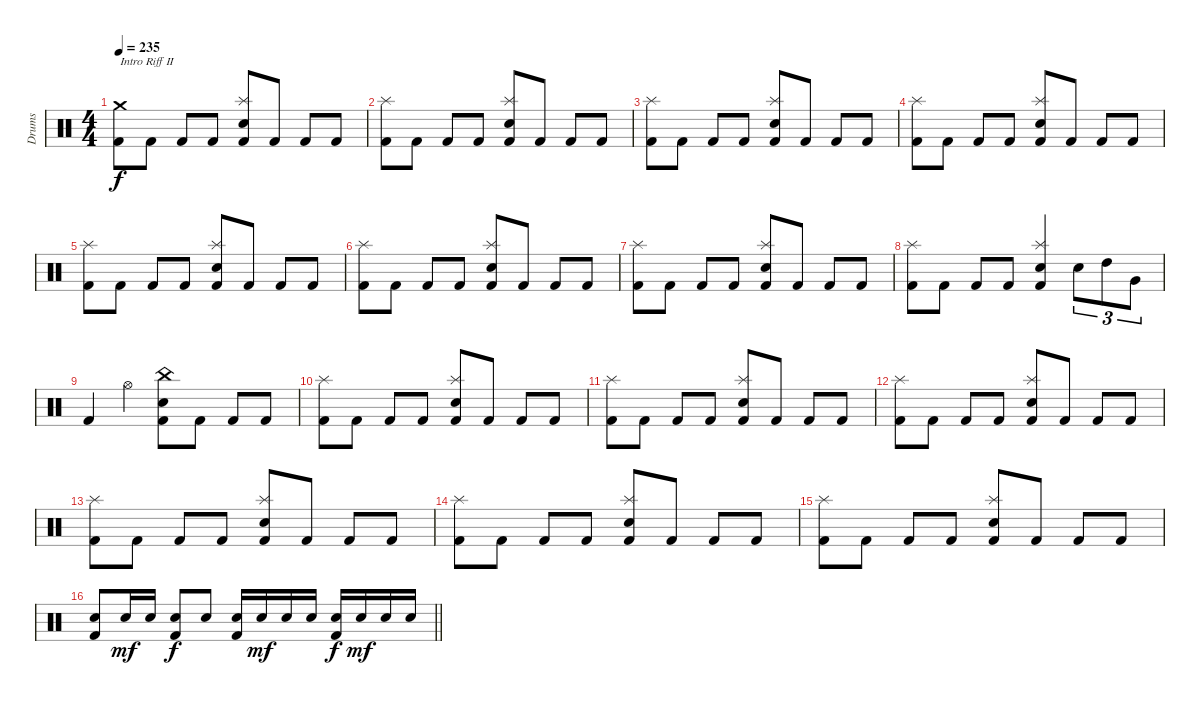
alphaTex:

\track ("Drums" "Drums") {instrument percussion}
\staff {score}
\articulation defaults
\ts (4 4)
\tempo 235
\clef neutral
\ks c
("Crash medium (hit)" "Kick (hit) 2").8{txt "Intro Riff II" dy f} "Kick (hit) 2".8 "Kick (hit) 2".8 "Kick (hit) 2".8 ("Splash (hit)" "Electric Snare (hit)" "Kick (hit) 2").8 "Kick (hit) 2".8 "Kick (hit) 2".8 "Kick (hit) 2".8 |
("Splash (hit)" "Kick (hit) 2").8 "Kick (hit) 2".8 "Kick (hit) 2".8 "Kick (hit) 2".8 ("Splash (hit)" "Electric Snare (hit)" "Kick (hit) 2").8 "Kick (hit) 2".8 "Kick (hit) 2".8 "Kick (hit) 2".8 |
("Splash (hit)" "Kick (hit) 2").8 "Kick (hit) 2".8 "Kick (hit) 2".8 "Kick (hit) 2".8 ("Splash (hit)" "Electric Snare (hit)" "Kick (hit) 2").8 "Kick (hit) 2".8 "Kick (hit) 2".8 "Kick (hit) 2".8 |
("Splash (hit)" "Kick (hit) 2").8 "Kick (hit) 2".8 "Kick (hit) 2".8 "Kick (hit) 2".8 ("Splash (hit)" "Electric Snare (hit)" "Kick (hit) 2").8 "Kick (hit) 2".8 "Kick (hit) 2".8 "Kick (hit) 2".8 |
("Splash (hit)" "Kick (hit) 2").8 "Kick (hit) 2".8 "Kick (hit) 2".8 "Kick (hit) 2".8 ("Splash (hit)" "Electric Snare (hit)" "Kick (hit) 2").8 "Kick (hit) 2".8 "Kick (hit) 2".8 "Kick (hit) 2".8 |
("Splash (hit)" "Kick (hit) 2").8 "Kick (hit) 2".8 "Kick (hit) 2".8 "Kick (hit) 2".8 ("Splash (hit)" "Electric Snare (hit)" "Kick (hit) 2").8 "Kick (hit) 2".8 "Kick (hit) 2".8 "Kick (hit) 2".8 |
("Splash (hit)" "Kick (hit) 2").8 "Kick (hit) 2".8 "Kick (hit) 2".8 "Kick (hit) 2".8 ("Splash (hit)" "Electric Snare (hit)" "Kick (hit) 2").8 "Kick (hit) 2".8 "Kick (hit) 2".8 "Kick (hit) 2".8 |
("Splash (hit)" "Kick (hit) 2").8 "Kick (hit) 2".8 "Kick (hit) 2".8 "Kick (hit) 2".8 ("Splash (hit)" "Electric Snare (hit)" "Kick (hit) 2").4 "Electric Snare (hit)".8{tu (3 2)} "High Tom (hit)".8{tu (3 2)} "Very Low Tom (hit)".8{tu (3 2)} |
"Kick (hit) 2".4 "Hi-Hat (open)".4 ("China (hit)" "Electric Snare (hit)" "Kick (hit) 2").8 "Kick (hit) 2".8 "Kick (hit) 2".8 "Kick (hit) 2".8 |
("Splash (hit)" "Kick (hit) 2").8 "Kick (hit) 2".8 "Kick (hit) 2".8 "Kick (hit) 2".8 ("Splash (hit)" "Electric Snare (hit)" "Kick (hit) 2").8 "Kick (hit) 2".8 "Kick (hit) 2".8 "Kick (hit) 2".8 |
("Splash (hit)" "Kick (hit) 2").8 "Kick (hit) 2".8 "Kick (hit) 2".8 "Kick (hit) 2".8 ("Splash (hit)" "Electric Snare (hit)" "Kick (hit) 2").8 "Kick (hit) 2".8 "Kick (hit) 2".8 "Kick (hit) 2".8 |
("Splash (hit)" "Kick (hit) 2").8 "Kick (hit) 2".8 "Kick (hit) 2".8 "Kick (hit) 2".8 ("Splash (hit)" "Electric Snare (hit)" "Kick (hit) 2").8 "Kick (hit) 2".8 "Kick (hit) 2".8 "Kick (hit) 2".8 |
("Splash (hit)" "Kick (hit) 2").8 "Kick (hit) 2".8 "Kick (hit) 2".8 "Kick (hit) 2".8 ("Splash (hit)" "Electric Snare (hit)" "Kick (hit) 2").8 "Kick (hit) 2".8 "Kick (hit) 2".8 "Kick (hit) 2".8 |
("Splash (hit)" "Kick (hit) 2").8 "Kick (hit) 2".8 "Kick (hit) 2".8 "Kick (hit) 2".8 ("Splash (hit)" "Electric Snare (hit)" "Kick (hit) 2").8 "Kick (hit) 2".8 "Kick (hit) 2".8 "Kick (hit) 2".8 |
("Splash (hit)" "Kick (hit) 2").8 "Kick (hit) 2".8 "Kick (hit) 2".8 "Kick (hit) 2".8 ("Splash (hit)" "Electric Snare (hit)" "Kick (hit) 2").8 "Kick (hit) 2".8 "Kick (hit) 2".8 "Kick (hit) 2".8 |
\barLineRight lightlight
("Electric Snare (hit)" "Kick (hit) 2").8 "Electric Snare (hit)".16{dy mf} "Electric Snare (hit)".16 ("Electric Snare (hit)" "Kick (hit) 2").8{dy f} "Electric Snare (hit)".8 ("Electric Snare (hit)" "Kick (hit) 2").16 "Electric Snare (hit)".16{dy mf} "Electric Snare (hit)".16 "Electric Snare (hit)".16 ("Electric Snare (hit)" "Kick (hit) 2").16{dy f} "Electric Snare (hit)".16{dy mf} "Electric Snare (hit)".16 "Electric Snare (hit)".16
